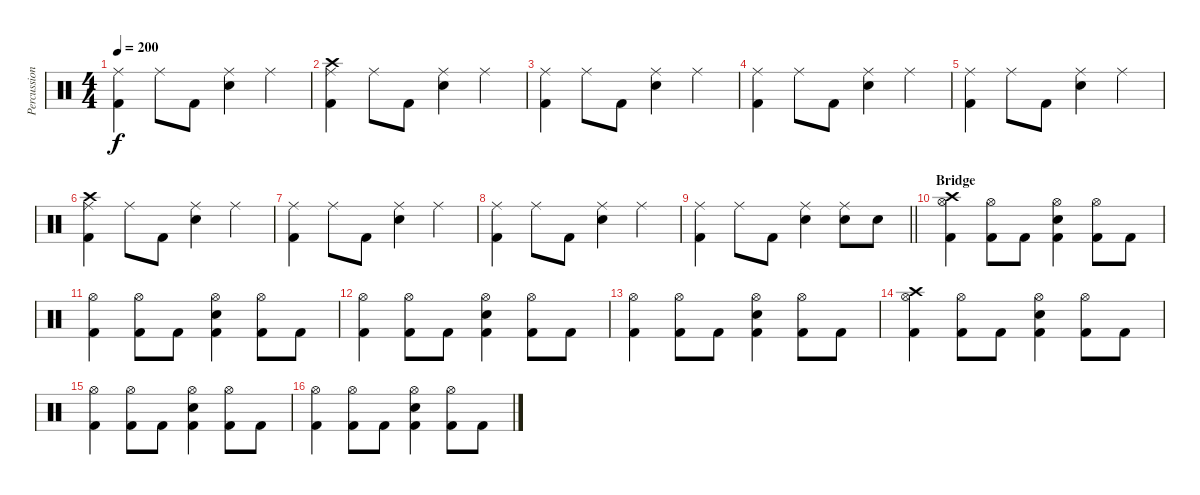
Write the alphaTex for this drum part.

\track ("Percussion" "Percussion") {instrument percussion}
\staff {score}
\articulation defaults
\ts (4 4)
\tempo 200
\clef neutral
\ks c
("Ride (middle)" "Kick (hit) 2").4{dy f} "Ride (middle)".8 "Kick (hit) 2".8 ("Ride (middle)" "Snare (hit) 2").4 "Ride (middle)".4 |
("Crash high (hit)" "Ride (middle)" "Kick (hit) 2").4 "Ride (middle)".8 "Kick (hit) 2".8 ("Ride (middle)" "Snare (hit) 2").4 "Ride (middle)".4 |
("Ride (middle)" "Kick (hit) 2").4 "Ride (middle)".8 "Kick (hit) 2".8 ("Ride (middle)" "Snare (hit) 2").4 "Ride (middle)".4 |
("Ride (middle)" "Kick (hit) 2").4 "Ride (middle)".8 "Kick (hit) 2".8 ("Ride (middle)" "Snare (hit) 2").4 "Ride (middle)".4 |
("Ride (middle)" "Kick (hit) 2").4 "Ride (middle)".8 "Kick (hit) 2".8 ("Ride (middle)" "Snare (hit) 2").4 "Ride (middle)".4 |
("Crash high (hit)" "Ride (middle)" "Kick (hit) 2").4 "Ride (middle)".8 "Kick (hit) 2".8 ("Ride (middle)" "Snare (hit) 2").4 "Ride (middle)".4 |
("Ride (middle)" "Kick (hit) 2").4 "Ride (middle)".8 "Kick (hit) 2".8 ("Ride (middle)" "Snare (hit) 2").4 "Ride (middle)".4 |
("Ride (middle)" "Kick (hit) 2").4 "Ride (middle)".8 "Kick (hit) 2".8 ("Ride (middle)" "Snare (hit) 2").4 "Ride (middle)".4 |
\barLineRight lightlight
("Ride (middle)" "Kick (hit) 2").4 "Ride (middle)".8 "Kick (hit) 2".8 ("Ride (middle)" "Snare (hit) 2").4 ("Ride (middle)" "Snare (hit) 2").8 "Snare (hit) 2".8 |
\section ("" "Bridge")
("Crash high (hit)" "Hi-Hat (open)" "Kick (hit) 2").4 ("Hi-Hat (open)" "Kick (hit) 2").8 "Kick (hit) 2".8 ("Hi-Hat (open)" "Snare (hit) 2" "Kick (hit) 2").4 ("Hi-Hat (open)" "Kick (hit) 2").8 "Kick (hit) 2".8 |
("Hi-Hat (open)" "Kick (hit) 2").4 ("Hi-Hat (open)" "Kick (hit) 2").8 "Kick (hit) 2".8 ("Hi-Hat (open)" "Snare (hit) 2" "Kick (hit) 2").4 ("Hi-Hat (open)" "Kick (hit) 2").8 "Kick (hit) 2".8 |
("Hi-Hat (open)" "Kick (hit) 2").4 ("Hi-Hat (open)" "Kick (hit) 2").8 "Kick (hit) 2".8 ("Hi-Hat (open)" "Snare (hit) 2" "Kick (hit) 2").4 ("Hi-Hat (open)" "Kick (hit) 2").8 "Kick (hit) 2".8 |
("Hi-Hat (open)" "Kick (hit) 2").4 ("Hi-Hat (open)" "Kick (hit) 2").8 "Kick (hit) 2".8 ("Hi-Hat (open)" "Snare (hit) 2" "Kick (hit) 2").4 ("Hi-Hat (open)" "Kick (hit) 2").8 "Kick (hit) 2".8 |
("Crash high (hit)" "Hi-Hat (open)" "Kick (hit) 2").4 ("Hi-Hat (open)" "Kick (hit) 2").8 "Kick (hit) 2".8 ("Hi-Hat (open)" "Snare (hit) 2" "Kick (hit) 2").4 ("Hi-Hat (open)" "Kick (hit) 2").8 "Kick (hit) 2".8 |
("Hi-Hat (open)" "Kick (hit) 2").4 ("Hi-Hat (open)" "Kick (hit) 2").8 "Kick (hit) 2".8 ("Hi-Hat (open)" "Snare (hit) 2" "Kick (hit) 2").4 ("Hi-Hat (open)" "Kick (hit) 2").8 "Kick (hit) 2".8 |
("Hi-Hat (open)" "Kick (hit) 2").4 ("Hi-Hat (open)" "Kick (hit) 2").8 "Kick (hit) 2".8 ("Hi-Hat (open)" "Snare (hit) 2" "Kick (hit) 2").4 ("Hi-Hat (open)" "Kick (hit) 2").8 "Kick (hit) 2".8
